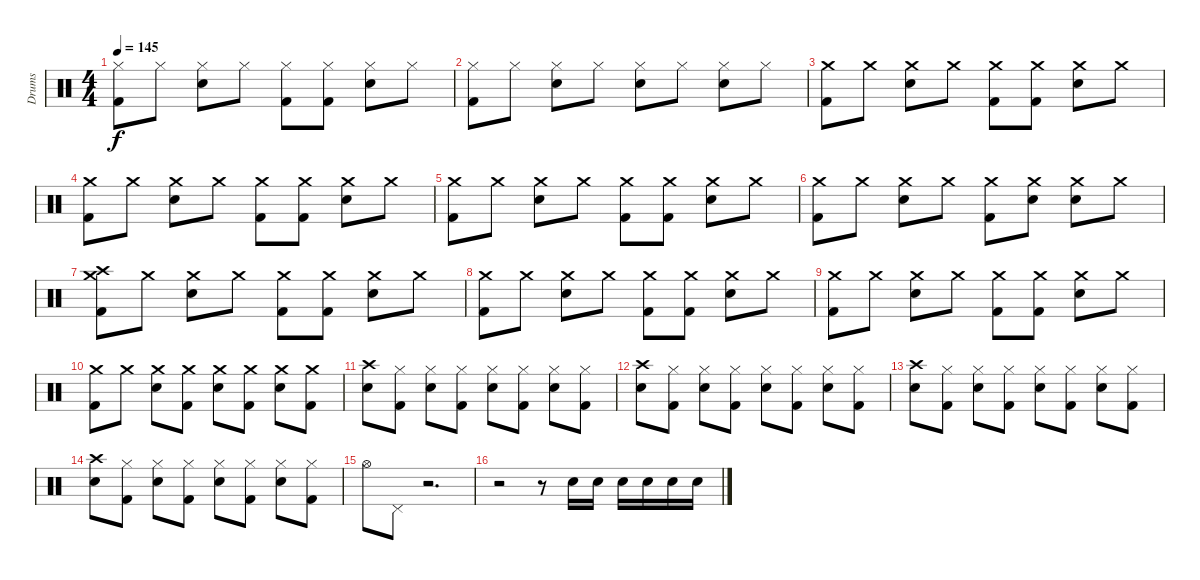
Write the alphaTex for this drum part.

\track ("Drums" "Drums") {instrument percussion}
\staff {score}
\articulation defaults
\ts (4 4)
\tempo 145
\clef neutral
\ks c
("Hi-Hat (closed)" "Kick (hit) 2").8{dy f} "Hi-Hat (closed)".8 ("Hi-Hat (closed)" "Snare (hit) 2").8 "Hi-Hat (closed)".8 ("Hi-Hat (closed)" "Kick (hit) 2").8 ("Hi-Hat (closed)" "Kick (hit) 2").8 ("Hi-Hat (closed)" "Snare (hit) 2").8 "Hi-Hat (closed)".8 |
("Hi-Hat (closed)" "Kick (hit) 2").8 "Hi-Hat (closed)".8 ("Hi-Hat (closed)" "Snare (hit) 2").8 "Hi-Hat (closed)".8 ("Hi-Hat (closed)" "Snare (hit) 2").8 "Hi-Hat (closed)".8 ("Hi-Hat (closed)" "Snare (hit) 2").8 "Hi-Hat (closed)".8 |
("Crash medium (hit)" "Kick (hit) 2").8 "Crash medium (hit)".8 ("Crash medium (hit)" "Snare (hit) 2").8 "Crash medium (hit)".8 ("Crash medium (hit)" "Kick (hit) 2").8 ("Crash medium (hit)" "Kick (hit) 2").8 ("Crash medium (hit)" "Snare (hit) 2").8 "Crash medium (hit)".8 |
("Crash medium (hit)" "Kick (hit) 2").8 "Crash medium (hit)".8 ("Crash medium (hit)" "Snare (hit) 2").8 "Crash medium (hit)".8 ("Crash medium (hit)" "Kick (hit) 2").8 ("Crash medium (hit)" "Kick (hit) 2").8 ("Crash medium (hit)" "Snare (hit) 2").8 "Crash medium (hit)".8 |
("Crash medium (hit)" "Kick (hit) 2").8 "Crash medium (hit)".8 ("Crash medium (hit)" "Snare (hit) 2").8 "Crash medium (hit)".8 ("Crash medium (hit)" "Kick (hit) 2").8 ("Crash medium (hit)" "Kick (hit) 2").8 ("Crash medium (hit)" "Snare (hit) 2").8 "Crash medium (hit)".8 |
("Crash medium (hit)" "Kick (hit) 2").8 "Crash medium (hit)".8 ("Crash medium (hit)" "Snare (hit) 2").8 "Crash medium (hit)".8 ("Crash medium (hit)" "Kick (hit) 2").8 ("Crash medium (hit)" "Snare (hit) 2").8 ("Crash medium (hit)" "Snare (hit) 2").8 "Crash medium (hit)".8 |
("Crash medium (hit)" "Crash high (hit)" "Kick (hit) 2").8 "Crash medium (hit)".8 ("Crash medium (hit)" "Snare (hit) 2").8 "Crash medium (hit)".8 ("Crash medium (hit)" "Kick (hit) 2").8 ("Crash medium (hit)" "Kick (hit) 2").8 ("Crash medium (hit)" "Snare (hit) 2").8 "Crash medium (hit)".8 |
("Crash medium (hit)" "Kick (hit) 2").8 "Crash medium (hit)".8 ("Crash medium (hit)" "Snare (hit) 2").8 "Crash medium (hit)".8 ("Crash medium (hit)" "Kick (hit) 2").8 ("Crash medium (hit)" "Kick (hit) 2").8 ("Crash medium (hit)" "Snare (hit) 2").8 "Crash medium (hit)".8 |
("Crash medium (hit)" "Kick (hit) 2").8 "Crash medium (hit)".8 ("Crash medium (hit)" "Snare (hit) 2").8 "Crash medium (hit)".8 ("Crash medium (hit)" "Kick (hit) 2").8 ("Crash medium (hit)" "Kick (hit) 2").8 ("Crash medium (hit)" "Snare (hit) 2").8 "Crash medium (hit)".8 |
("Crash medium (hit)" "Kick (hit) 2").8 "Crash medium (hit)".8 ("Crash medium (hit)" "Snare (hit) 2").8 ("Crash medium (hit)" "Kick (hit) 2").8 ("Crash medium (hit)" "Snare (hit) 2").8 ("Crash medium (hit)" "Kick (hit) 2").8 ("Crash medium (hit)" "Snare (hit) 2").8 ("Crash medium (hit)" "Kick (hit) 2").8 |
("Crash high (hit)" "Snare (hit) 2").8 ("Hi-Hat (closed)" "Kick (hit) 2").8 ("Hi-Hat (closed)" "Snare (hit) 2").8 ("Hi-Hat (closed)" "Kick (hit) 2").8 ("Hi-Hat (closed)" "Snare (hit) 2").8 ("Hi-Hat (closed)" "Kick (hit) 2").8 ("Hi-Hat (closed)" "Snare (hit) 2").8 ("Hi-Hat (closed)" "Kick (hit) 2").8 |
("Crash high (hit)" "Snare (hit) 2").8 ("Hi-Hat (closed)" "Kick (hit) 2").8 ("Hi-Hat (closed)" "Snare (hit) 2").8 ("Hi-Hat (closed)" "Kick (hit) 2").8 ("Hi-Hat (closed)" "Snare (hit) 2").8 ("Hi-Hat (closed)" "Kick (hit) 2").8 ("Hi-Hat (closed)" "Snare (hit) 2").8 ("Hi-Hat (closed)" "Kick (hit) 2").8 |
("Crash high (hit)" "Snare (hit) 2").8 ("Hi-Hat (closed)" "Kick (hit) 2").8 ("Hi-Hat (closed)" "Snare (hit) 2").8 ("Hi-Hat (closed)" "Kick (hit) 2").8 ("Hi-Hat (closed)" "Snare (hit) 2").8 ("Hi-Hat (closed)" "Kick (hit) 2").8 ("Hi-Hat (closed)" "Snare (hit) 2").8 ("Hi-Hat (closed)" "Kick (hit) 2").8 |
("Crash high (hit)" "Snare (hit) 2").8 ("Hi-Hat (closed)" "Kick (hit) 2").8 ("Hi-Hat (closed)" "Snare (hit) 2").8 ("Hi-Hat (closed)" "Kick (hit) 2").8 ("Hi-Hat (closed)" "Snare (hit) 2").8 ("Hi-Hat (closed)" "Kick (hit) 2").8 ("Hi-Hat (closed)" "Snare (hit) 2").8 ("Hi-Hat (closed)" "Kick (hit) 2").8 |
"Hi-Hat (open)".8 "Pedal Hi-Hat (hit)".8 r.2{d} |
r.2 r.8 "Snare (hit) 2".16 "Snare (hit) 2".16 "Snare (hit) 2".16 "Snare (hit) 2".16 "Snare (hit) 2".16 "Snare (hit) 2".16
